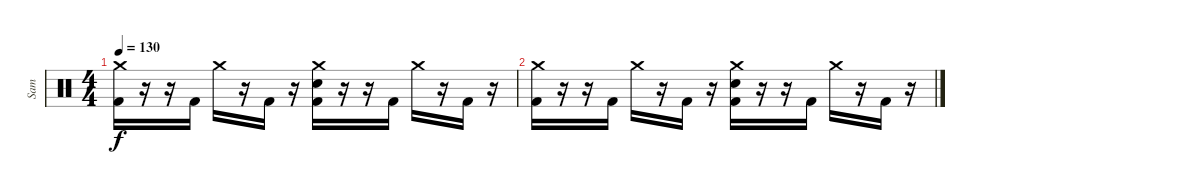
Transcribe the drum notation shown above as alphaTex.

\track ("Sam" "Sam") {instrument percussion}
\staff {score}
\articulation defaults
\ts (4 4)
\tempo 130
\clef neutral
\ks c
("Crash medium (hit)" "Kick (hit) 2").16{dy f} r.16 r.16 "Kick (hit) 2".16 "Crash medium (hit)".16 r.16 "Kick (hit) 2".16 r.16 ("Crash medium (hit)" "Electric Snare (hit)" "Kick (hit) 2").16 r.16 r.16 "Kick (hit) 2".16 "Crash medium (hit)".16 r.16 "Kick (hit) 2".16 r.16 |
("Crash medium (hit)" "Kick (hit) 2").16 r.16 r.16 "Kick (hit) 2".16 "Crash medium (hit)".16 r.16 "Kick (hit) 2".16 r.16 ("Crash medium (hit)" "Electric Snare (hit)" "Kick (hit) 2").16 r.16 r.16 "Kick (hit) 2".16 "Crash medium (hit)".16 r.16 "Kick (hit) 2".16 r.16
